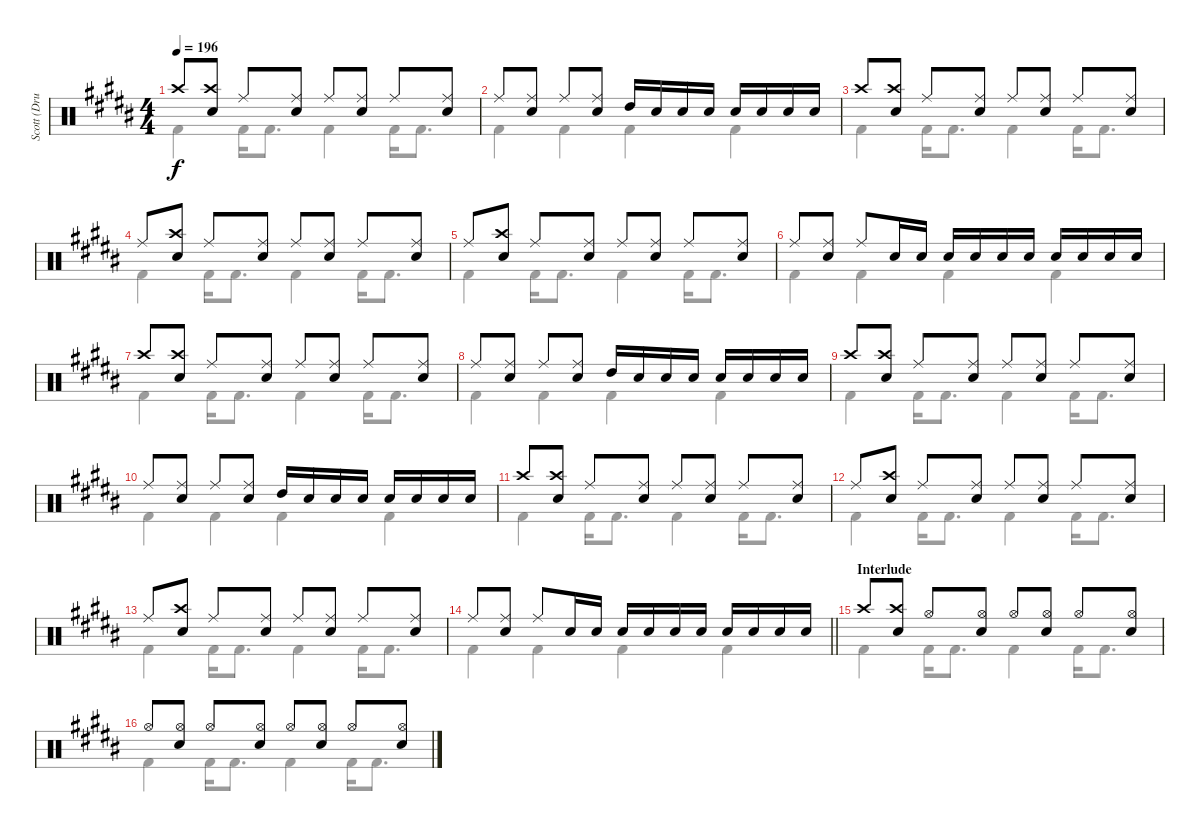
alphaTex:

\track ("Scott (Drums)" "Scott (Dru") {instrument percussion}
\staff {score}
\articulation defaults
\voice
\ts (4 4)
\tempo 196
\clef neutral
\ks b "Crash high (hit)".8{dy f}
("Crash high (hit)" "Electric Snare (hit)").8 "Ride (middle)".8 ("Ride (middle)" "Electric Snare (hit)").8 "Ride (middle)".8 ("Ride (middle)" "Electric Snare (hit)").8 "Ride (middle)".8 ("Ride (middle)" "Electric Snare (hit)").8 |
"Ride (middle)".8 ("Ride (middle)" "Electric Snare (hit)").8 "Ride (middle)".8 ("Ride (middle)" "Electric Snare (hit)").8 "High Tom (hit)".16 "Electric Snare (hit)".16 "Electric Snare (hit)".16 "Electric Snare (hit)".16 "Electric Snare (hit)".16 "Electric Snare (hit)".16 "Electric Snare (hit)".16 "Electric Snare (hit)".16 |
"Crash high (hit)".8 ("Crash high (hit)" "Electric Snare (hit)").8 "Ride (middle)".8 ("Ride (middle)" "Electric Snare (hit)").8 "Ride (middle)".8 ("Ride (middle)" "Electric Snare (hit)").8 "Ride (middle)".8 ("Ride (middle)" "Electric Snare (hit)").8 |
"Ride (middle)".8 ("Crash high (hit)" "Electric Snare (hit)").8 "Ride (middle)".8 ("Ride (middle)" "Electric Snare (hit)").8 "Ride (middle)".8 ("Ride (middle)" "Electric Snare (hit)").8 "Ride (middle)".8 ("Ride (middle)" "Electric Snare (hit)").8 |
"Ride (middle)".8 ("Crash high (hit)" "Electric Snare (hit)").8 "Ride (middle)".8 ("Ride (middle)" "Electric Snare (hit)").8 "Ride (middle)".8 ("Ride (middle)" "Electric Snare (hit)").8 "Ride (middle)".8 ("Ride (middle)" "Electric Snare (hit)").8 |
"Ride (middle)".8 ("Ride (middle)" "Electric Snare (hit)").8 "Ride (middle)".8 "Electric Snare (hit)".16 "Electric Snare (hit)".16 "Electric Snare (hit)".16 "Electric Snare (hit)".16 "Electric Snare (hit)".16 "Electric Snare (hit)".16 "Electric Snare (hit)".16 "Electric Snare (hit)".16 "Electric Snare (hit)".16 "Electric Snare (hit)".16 |
"Crash high (hit)".8 ("Crash high (hit)" "Electric Snare (hit)").8 "Ride (middle)".8 ("Ride (middle)" "Electric Snare (hit)").8 "Ride (middle)".8 ("Ride (middle)" "Electric Snare (hit)").8 "Ride (middle)".8 ("Ride (middle)" "Electric Snare (hit)").8 |
"Ride (middle)".8 ("Ride (middle)" "Electric Snare (hit)").8 "Ride (middle)".8 ("Ride (middle)" "Electric Snare (hit)").8 "High Tom (hit)".16 "Electric Snare (hit)".16 "Electric Snare (hit)".16 "Electric Snare (hit)".16 "Electric Snare (hit)".16 "Electric Snare (hit)".16 "Electric Snare (hit)".16 "Electric Snare (hit)".16 |
"Crash high (hit)".8 ("Crash high (hit)" "Electric Snare (hit)").8 "Ride (middle)".8 ("Ride (middle)" "Electric Snare (hit)").8 "Ride (middle)".8 ("Ride (middle)" "Electric Snare (hit)").8 "Ride (middle)".8 ("Ride (middle)" "Electric Snare (hit)").8 |
"Ride (middle)".8 ("Ride (middle)" "Electric Snare (hit)").8 "Ride (middle)".8 ("Ride (middle)" "Electric Snare (hit)").8 "High Tom (hit)".16 "Electric Snare (hit)".16 "Electric Snare (hit)".16 "Electric Snare (hit)".16 "Electric Snare (hit)".16 "Electric Snare (hit)".16 "Electric Snare (hit)".16 "Electric Snare (hit)".16 |
"Crash high (hit)".8 ("Crash high (hit)" "Electric Snare (hit)").8 "Ride (middle)".8 ("Ride (middle)" "Electric Snare (hit)").8 "Ride (middle)".8 ("Ride (middle)" "Electric Snare (hit)").8 "Ride (middle)".8 ("Ride (middle)" "Electric Snare (hit)").8 |
"Ride (middle)".8 ("Crash high (hit)" "Electric Snare (hit)").8 "Ride (middle)".8 ("Ride (middle)" "Electric Snare (hit)").8 "Ride (middle)".8 ("Ride (middle)" "Electric Snare (hit)").8 "Ride (middle)".8 ("Ride (middle)" "Electric Snare (hit)").8 |
"Ride (middle)".8 ("Crash high (hit)" "Electric Snare (hit)").8 "Ride (middle)".8 ("Ride (middle)" "Electric Snare (hit)").8 "Ride (middle)".8 ("Ride (middle)" "Electric Snare (hit)").8 "Ride (middle)".8 ("Ride (middle)" "Electric Snare (hit)").8 |
\barLineRight lightlight "Ride (middle)".8
("Ride (middle)" "Electric Snare (hit)").8 "Ride (middle)".8 "Electric Snare (hit)".16 "Electric Snare (hit)".16 "Electric Snare (hit)".16 "Electric Snare (hit)".16 "Electric Snare (hit)".16 "Electric Snare (hit)".16 "Electric Snare (hit)".16 "Electric Snare (hit)".16 "Electric Snare (hit)".16 "Electric Snare (hit)".16 |
\section ("" "Interlude")
"Crash high (hit)".8 ("Crash high (hit)" "Electric Snare (hit)").8 "Hi-Hat (open)".8 ("Hi-Hat (open)" "Electric Snare (hit)").8 "Hi-Hat (open)".8 ("Hi-Hat (open)" "Electric Snare (hit)").8 "Hi-Hat (open)".8 ("Hi-Hat (open)" "Electric Snare (hit)").8 |
"Hi-Hat (open)".8 ("Hi-Hat (open)" "Electric Snare (hit)").8 "Hi-Hat (open)".8 ("Hi-Hat (open)" "Electric Snare (hit)").8 "Hi-Hat (open)".8 ("Hi-Hat (open)" "Electric Snare (hit)").8 "Hi-Hat (open)".8 ("Hi-Hat (open)" "Electric Snare (hit)").8
\voice
\clef neutral
\ottava regular
\simile none
\ks b "Kick (hit) 2".4{dy f} "Kick (hit) 2".16 "Kick (hit) 2".8{d} "Kick (hit) 2".4 "Kick (hit) 2".16 "Kick (hit) 2".8{d}
|
"Kick (hit) 2".4 "Kick (hit) 2".4 "Kick (hit) 2".4 "Kick (hit) 2".4 |
"Kick (hit) 2".4 "Kick (hit) 2".16 "Kick (hit) 2".8{d} "Kick (hit) 2".4 "Kick (hit) 2".16 "Kick (hit) 2".8{d} |
"Kick (hit) 2".4 "Kick (hit) 2".16 "Kick (hit) 2".8{d} "Kick (hit) 2".4 "Kick (hit) 2".16 "Kick (hit) 2".8{d} |
"Kick (hit) 2".4 "Kick (hit) 2".16 "Kick (hit) 2".8{d} "Kick (hit) 2".4 "Kick (hit) 2".16 "Kick (hit) 2".8{d} |
"Kick (hit) 2".4 "Kick (hit) 2".4 "Kick (hit) 2".4 "Kick (hit) 2".4 |
"Kick (hit) 2".4 "Kick (hit) 2".16 "Kick (hit) 2".8{d} "Kick (hit) 2".4 "Kick (hit) 2".16 "Kick (hit) 2".8{d} |
"Kick (hit) 2".4 "Kick (hit) 2".4 "Kick (hit) 2".4 "Kick (hit) 2".4 |
"Kick (hit) 2".4 "Kick (hit) 2".16 "Kick (hit) 2".8{d} "Kick (hit) 2".4 "Kick (hit) 2".16 "Kick (hit) 2".8{d} |
"Kick (hit) 2".4 "Kick (hit) 2".4 "Kick (hit) 2".4 "Kick (hit) 2".4 |
"Kick (hit) 2".4 "Kick (hit) 2".16 "Kick (hit) 2".8{d} "Kick (hit) 2".4 "Kick (hit) 2".16 "Kick (hit) 2".8{d} |
"Kick (hit) 2".4 "Kick (hit) 2".16 "Kick (hit) 2".8{d} "Kick (hit) 2".4 "Kick (hit) 2".16 "Kick (hit) 2".8{d} |
"Kick (hit) 2".4 "Kick (hit) 2".16 "Kick (hit) 2".8{d} "Kick (hit) 2".4 "Kick (hit) 2".16 "Kick (hit) 2".8{d} |
\barLineRight lightlight "Kick (hit) 2".4 "Kick (hit) 2".4 "Kick (hit) 2".4 "Kick (hit) 2".4
|
"Kick (hit) 2".4 "Kick (hit) 2".16 "Kick (hit) 2".8{d} "Kick (hit) 2".4 "Kick (hit) 2".16 "Kick (hit) 2".8{d} |
"Kick (hit) 2".4 "Kick (hit) 2".16 "Kick (hit) 2".8{d} "Kick (hit) 2".4 "Kick (hit) 2".16 "Kick (hit) 2".8{d}
